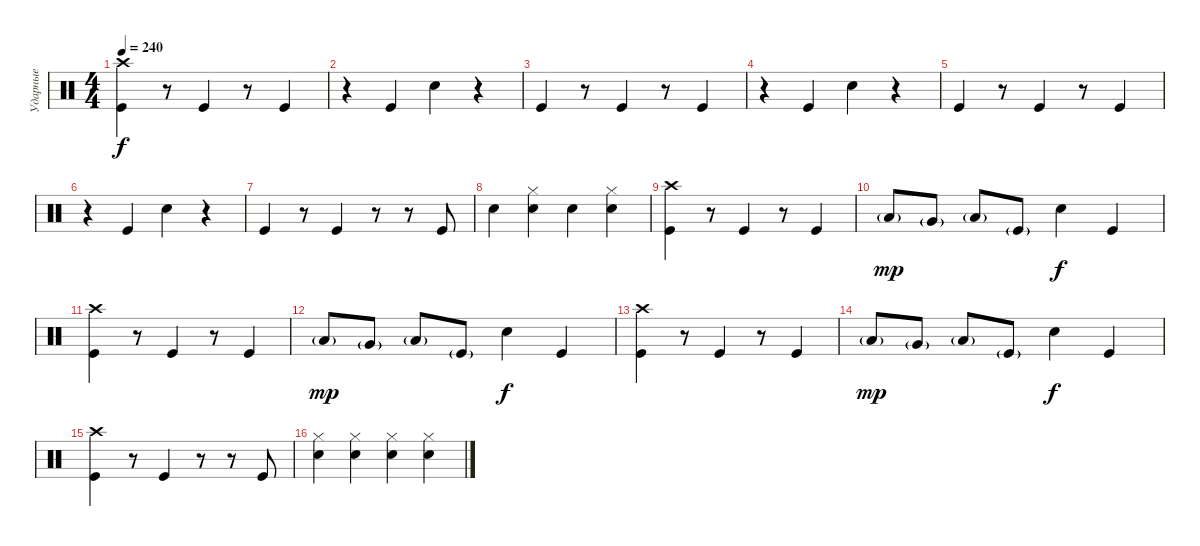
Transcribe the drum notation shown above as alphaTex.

\track ("Ударные" "Ударные") {instrument percussion}
\staff {score}
\articulation defaults
\ts (4 4)
\tempo 240
\clef neutral
\ks c
("Crash high (hit)" "Kick (hit)").4{dy f} r.8 "Kick (hit)".4 r.8 "Kick (hit)".4 |
r.4 "Kick (hit)".4 "Snare (hit) 2".4 r.4 |
"Kick (hit)".4 r.8 "Kick (hit)".4 r.8 "Kick (hit)".4 |
r.4 "Kick (hit)".4 "Snare (hit) 2".4 r.4 |
"Kick (hit)".4 r.8 "Kick (hit)".4 r.8 "Kick (hit)".4 |
r.4 "Kick (hit)".4 "Snare (hit) 2".4 r.4 |
"Kick (hit)".4 r.8 "Kick (hit)".4 r.8 r.8 "Kick (hit)".8 |
"Snare (hit) 2".4 ("Hi-Hat (closed)" "Snare (hit) 2").4 "Snare (hit) 2".4 ("Hi-Hat (closed)" "Snare (hit) 2").4 |
("Crash high (hit)" "Kick (hit)").4 r.8 "Kick (hit)".4 r.8 "Kick (hit)".4 |
"Low Tom (hit)"{g}.8{dy mp} "Very Low Tom (hit)"{g}.8 "Low Floor Tom (hit)"{g}.8 "Kick (hit)"{g}.8 "Snare (hit) 2".4{dy f} "Kick (hit)".4 |
("Crash high (hit)" "Kick (hit)").4 r.8 "Kick (hit)".4 r.8 "Kick (hit)".4 |
"Low Tom (hit)"{g}.8{dy mp} "Very Low Tom (hit)"{g}.8 "Low Floor Tom (hit)"{g}.8 "Kick (hit)"{g}.8 "Snare (hit) 2".4{dy f} "Kick (hit)".4 |
("Crash high (hit)" "Kick (hit)").4 r.8 "Kick (hit)".4 r.8 "Kick (hit)".4 |
"Low Tom (hit)"{g}.8{dy mp} "Very Low Tom (hit)"{g}.8 "Low Floor Tom (hit)"{g}.8 "Kick (hit)"{g}.8 "Snare (hit) 2".4{dy f} "Kick (hit)".4 |
("Crash high (hit)" "Kick (hit)").4 r.8 "Kick (hit)".4 r.8 r.8 "Kick (hit)".8 |
("Hi-Hat (closed)" "Snare (hit) 2").4 ("Hi-Hat (closed)" "Snare (hit) 2").4 ("Hi-Hat (closed)" "Snare (hit) 2").4 ("Hi-Hat (closed)" "Snare (hit) 2").4
